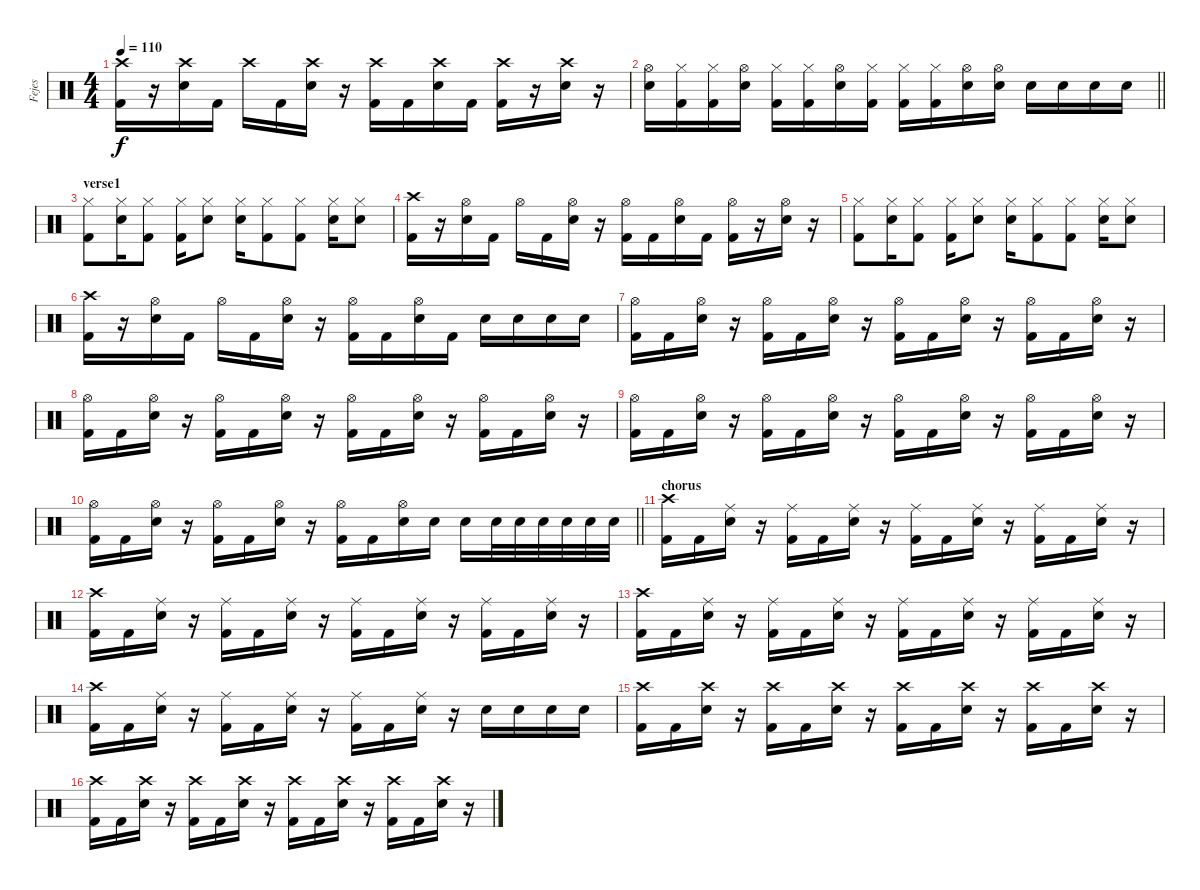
\track ("Fejes" "Fejes") {instrument percussion}
\staff {score}
\articulation defaults
\ts (4 4)
\tempo 110
\clef neutral
\ks c
("Crash high (hit)" "Kick (hit) 2").16{dy f} r.16 ("Crash high (hit)" "Snare (hit) 2").16 "Kick (hit) 2".16 "Crash high (hit)".16 "Kick (hit) 2".16 ("Crash high (hit)" "Snare (hit) 2").16 r.16 ("Crash high (hit)" "Kick (hit) 2").16 "Kick (hit) 2".16 ("Crash high (hit)" "Snare (hit) 2").16 "Kick (hit) 2".16 ("Crash high (hit)" "Kick (hit) 2").16 r.16 ("Crash high (hit)" "Snare (hit) 2").16 r.16 |
\barLineRight lightlight
("Hi-Hat (open)" "Snare (hit) 2").16 ("Hi-Hat (closed)" "Kick (hit) 2").16 ("Hi-Hat (closed)" "Kick (hit) 2").16 ("Hi-Hat (open)" "Snare (hit) 2").16 ("Hi-Hat (closed)" "Kick (hit) 2").16 ("Hi-Hat (closed)" "Kick (hit) 2").16 ("Hi-Hat (open)" "Snare (hit) 2").16 ("Hi-Hat (closed)" "Kick (hit) 2").16 ("Hi-Hat (closed)" "Kick (hit) 2").16 ("Hi-Hat (closed)" "Kick (hit) 2").16 ("Hi-Hat (open)" "Snare (hit) 2").16 ("Hi-Hat (open)" "Snare (hit) 2").16 "Snare (hit) 2".16 "Snare (hit) 2".16 "Snare (hit) 2".16 "Snare (hit) 2".16 |
\section ("" "verse1")
("Hi-Hat (closed)" "Kick (hit) 2").8 ("Hi-Hat (closed)" "Snare (hit) 2").16 ("Hi-Hat (closed)" "Kick (hit) 2").8 ("Hi-Hat (closed)" "Kick (hit) 2").16 ("Hi-Hat (closed)" "Snare (hit) 2").8 ("Hi-Hat (closed)" "Snare (hit) 2").16 ("Hi-Hat (closed)" "Kick (hit) 2").8 ("Hi-Hat (closed)" "Kick (hit) 2").8 ("Hi-Hat (closed)" "Snare (hit) 2").16 ("Hi-Hat (closed)" "Snare (hit) 2").8 |
("Crash high (hit)" "Kick (hit) 2").16 r.16 ("Hi-Hat (open)" "Snare (hit) 2").16 "Kick (hit) 2".16 "Hi-Hat (open)".16 "Kick (hit) 2".16 ("Hi-Hat (open)" "Snare (hit) 2").16 r.16 ("Hi-Hat (open)" "Kick (hit) 2").16 "Kick (hit) 2".16 ("Hi-Hat (open)" "Snare (hit) 2").16 "Kick (hit) 2".16 ("Hi-Hat (open)" "Kick (hit) 2").16 r.16 ("Hi-Hat (open)" "Snare (hit) 2").16 r.16 |
("Hi-Hat (closed)" "Kick (hit) 2").8 ("Hi-Hat (closed)" "Snare (hit) 2").16 ("Hi-Hat (closed)" "Kick (hit) 2").8 ("Hi-Hat (closed)" "Kick (hit) 2").16 ("Hi-Hat (closed)" "Snare (hit) 2").8 ("Hi-Hat (closed)" "Snare (hit) 2").16 ("Hi-Hat (closed)" "Kick (hit) 2").8 ("Hi-Hat (closed)" "Kick (hit) 2").8 ("Hi-Hat (closed)" "Snare (hit) 2").16 ("Hi-Hat (closed)" "Snare (hit) 2").8 |
("Crash high (hit)" "Kick (hit) 2").16 r.16 ("Hi-Hat (open)" "Snare (hit) 2").16 "Kick (hit) 2".16 "Hi-Hat (open)".16 "Kick (hit) 2".16 ("Hi-Hat (open)" "Snare (hit) 2").16 r.16 ("Hi-Hat (open)" "Kick (hit) 2").16 "Kick (hit) 2".16 ("Hi-Hat (open)" "Snare (hit) 2").16 "Kick (hit) 2".16 "Snare (hit) 2".16 "Snare (hit) 2".16 "Snare (hit) 2".16 "Snare (hit) 2".16 |
("Hi-Hat (open)" "Kick (hit) 2").16 "Kick (hit) 2".16 ("Hi-Hat (open)" "Snare (hit) 2").16 r.16 ("Hi-Hat (open)" "Kick (hit) 2").16 "Kick (hit) 2".16 ("Hi-Hat (open)" "Snare (hit) 2").16 r.16 ("Hi-Hat (open)" "Kick (hit) 2").16 "Kick (hit) 2".16 ("Hi-Hat (open)" "Snare (hit) 2").16 r.16 ("Hi-Hat (open)" "Kick (hit) 2").16 "Kick (hit) 2".16 ("Hi-Hat (open)" "Snare (hit) 2").16 r.16 |
("Hi-Hat (open)" "Kick (hit) 2").16 "Kick (hit) 2".16 ("Hi-Hat (open)" "Snare (hit) 2").16 r.16 ("Hi-Hat (open)" "Kick (hit) 2").16 "Kick (hit) 2".16 ("Hi-Hat (open)" "Snare (hit) 2").16 r.16 ("Hi-Hat (open)" "Kick (hit) 2").16 "Kick (hit) 2".16 ("Hi-Hat (open)" "Snare (hit) 2").16 r.16 ("Hi-Hat (open)" "Kick (hit) 2").16 "Kick (hit) 2".16 ("Hi-Hat (open)" "Snare (hit) 2").16 r.16 |
("Hi-Hat (open)" "Kick (hit) 2").16 "Kick (hit) 2".16 ("Hi-Hat (open)" "Snare (hit) 2").16 r.16 ("Hi-Hat (open)" "Kick (hit) 2").16 "Kick (hit) 2".16 ("Hi-Hat (open)" "Snare (hit) 2").16 r.16 ("Hi-Hat (open)" "Kick (hit) 2").16 "Kick (hit) 2".16 ("Hi-Hat (open)" "Snare (hit) 2").16 r.16 ("Hi-Hat (open)" "Kick (hit) 2").16 "Kick (hit) 2".16 ("Hi-Hat (open)" "Snare (hit) 2").16 r.16 |
\barLineRight lightlight
("Hi-Hat (open)" "Kick (hit) 2").16 "Kick (hit) 2".16 ("Hi-Hat (open)" "Snare (hit) 2").16 r.16 ("Hi-Hat (open)" "Kick (hit) 2").16 "Kick (hit) 2".16 ("Hi-Hat (open)" "Snare (hit) 2").16 r.16 ("Hi-Hat (open)" "Kick (hit) 2").16 "Kick (hit) 2".16 ("Hi-Hat (open)" "Snare (hit) 2").16 "Snare (hit) 2".16 "Snare (hit) 2".16 "Snare (hit) 2".32 "Snare (hit) 2".32 "Snare (hit) 2".32 "Snare (hit) 2".32 "Snare (hit) 2".32 "Snare (hit) 2".32 |
\section ("" "chorus")
("Crash high (hit)" "Kick (hit) 2").16 "Kick (hit) 2".16 ("Ride (middle)" "Snare (hit) 2").16 r.16 ("Ride (middle)" "Kick (hit) 2").16 "Kick (hit) 2".16 ("Ride (middle)" "Snare (hit) 2").16 r.16 ("Ride (middle)" "Kick (hit) 2").16 "Kick (hit) 2".16 ("Ride (middle)" "Snare (hit) 2").16 r.16 ("Ride (middle)" "Kick (hit) 2").16 "Kick (hit) 2".16 ("Ride (middle)" "Snare (hit) 2").16 r.16 |
("Crash high (hit)" "Kick (hit) 2").16 "Kick (hit) 2".16 ("Ride (middle)" "Snare (hit) 2").16 r.16 ("Ride (middle)" "Kick (hit) 2").16 "Kick (hit) 2".16 ("Ride (middle)" "Snare (hit) 2").16 r.16 ("Ride (middle)" "Kick (hit) 2").16 "Kick (hit) 2".16 ("Ride (middle)" "Snare (hit) 2").16 r.16 ("Ride (middle)" "Kick (hit) 2").16 "Kick (hit) 2".16 ("Ride (middle)" "Snare (hit) 2").16 r.16 |
("Crash high (hit)" "Kick (hit) 2").16 "Kick (hit) 2".16 ("Ride (middle)" "Snare (hit) 2").16 r.16 ("Ride (middle)" "Kick (hit) 2").16 "Kick (hit) 2".16 ("Ride (middle)" "Snare (hit) 2").16 r.16 ("Ride (middle)" "Kick (hit) 2").16 "Kick (hit) 2".16 ("Ride (middle)" "Snare (hit) 2").16 r.16 ("Ride (middle)" "Kick (hit) 2").16 "Kick (hit) 2".16 ("Ride (middle)" "Snare (hit) 2").16 r.16 |
("Crash high (hit)" "Kick (hit) 2").16 "Kick (hit) 2".16 ("Ride (middle)" "Snare (hit) 2").16 r.16 ("Ride (middle)" "Kick (hit) 2").16 "Kick (hit) 2".16 ("Ride (middle)" "Snare (hit) 2").16 r.16 ("Ride (middle)" "Kick (hit) 2").16 "Kick (hit) 2".16 ("Ride (middle)" "Snare (hit) 2").16 r.16 "Snare (hit) 2".16 "Snare (hit) 2".16 "Snare (hit) 2".16 "Snare (hit) 2".16 |
("Crash high (hit)" "Kick (hit) 2").16 "Kick (hit) 2".16 ("Crash high (hit)" "Snare (hit) 2").16 r.16 ("Crash high (hit)" "Kick (hit) 2").16 "Kick (hit) 2".16 ("Crash high (hit)" "Snare (hit) 2").16 r.16 ("Crash high (hit)" "Kick (hit) 2").16 "Kick (hit) 2".16 ("Crash high (hit)" "Snare (hit) 2").16 r.16 ("Crash high (hit)" "Kick (hit) 2").16 "Kick (hit) 2".16 ("Crash high (hit)" "Snare (hit) 2").16 r.16 |
("Crash high (hit)" "Kick (hit) 2").16 "Kick (hit) 2".16 ("Crash high (hit)" "Snare (hit) 2").16 r.16 ("Crash high (hit)" "Kick (hit) 2").16 "Kick (hit) 2".16 ("Crash high (hit)" "Snare (hit) 2").16 r.16 ("Crash high (hit)" "Kick (hit) 2").16 "Kick (hit) 2".16 ("Crash high (hit)" "Snare (hit) 2").16 r.16 ("Crash high (hit)" "Kick (hit) 2").16 "Kick (hit) 2".16 ("Crash high (hit)" "Snare (hit) 2").16 r.16
